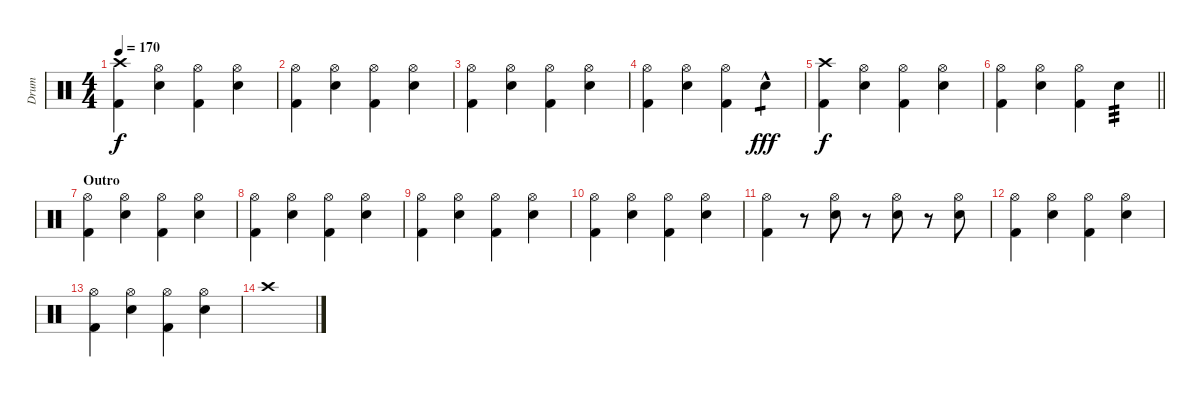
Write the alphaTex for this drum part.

\track ("Drum" "Drum") {instrument percussion}
\staff {score}
\articulation defaults
\ts (4 4)
\tempo 170
\clef neutral
\ks c
("Crash high (hit)" "Kick (hit) 2").4{dy f} ("Hi-Hat (open)" "Electric Snare (hit)").4 ("Hi-Hat (open)" "Kick (hit) 2").4 ("Hi-Hat (open)" "Electric Snare (hit)").4 |
("Hi-Hat (open)" "Kick (hit) 2").4 ("Hi-Hat (open)" "Electric Snare (hit)").4 ("Hi-Hat (open)" "Kick (hit) 2").4 ("Hi-Hat (open)" "Electric Snare (hit)").4 |
("Hi-Hat (open)" "Kick (hit) 2").4 ("Hi-Hat (open)" "Electric Snare (hit)").4 ("Hi-Hat (open)" "Kick (hit) 2").4 ("Hi-Hat (open)" "Electric Snare (hit)").4 |
("Hi-Hat (open)" "Kick (hit) 2").4 ("Hi-Hat (open)" "Electric Snare (hit)").4 ("Hi-Hat (open)" "Kick (hit) 2").4 "Electric Snare (hit)"{hac}.4{tp 1 dy fff} |
("Crash high (hit)" "Kick (hit) 2").4{dy f} ("Hi-Hat (open)" "Electric Snare (hit)").4 ("Hi-Hat (open)" "Kick (hit) 2").4 ("Hi-Hat (open)" "Electric Snare (hit)").4 |
\barLineRight lightlight
("Hi-Hat (open)" "Kick (hit) 2").4 ("Hi-Hat (open)" "Electric Snare (hit)").4 ("Hi-Hat (open)" "Kick (hit) 2").4 "Electric Snare (hit)".4{tp 3} |
\section ("" "Outro")
("Hi-Hat (open)" "Kick (hit) 2").4 ("Hi-Hat (open)" "Electric Snare (hit)").4 ("Hi-Hat (open)" "Kick (hit) 2").4 ("Hi-Hat (open)" "Electric Snare (hit)").4 |
("Hi-Hat (open)" "Kick (hit) 2").4 ("Hi-Hat (open)" "Electric Snare (hit)").4 ("Hi-Hat (open)" "Kick (hit) 2").4 ("Hi-Hat (open)" "Electric Snare (hit)").4 |
("Hi-Hat (open)" "Kick (hit) 2").4 ("Hi-Hat (open)" "Electric Snare (hit)").4 ("Hi-Hat (open)" "Kick (hit) 2").4 ("Hi-Hat (open)" "Electric Snare (hit)").4 |
("Hi-Hat (open)" "Kick (hit) 2").4 ("Hi-Hat (open)" "Electric Snare (hit)").4 ("Hi-Hat (open)" "Kick (hit) 2").4 ("Hi-Hat (open)" "Electric Snare (hit)").4 |
("Hi-Hat (open)" "Kick (hit) 2").4 r.8 ("Hi-Hat (open)" "Electric Snare (hit)").8 r.8 ("Hi-Hat (open)" "Electric Snare (hit)").8 r.8 ("Hi-Hat (open)" "Electric Snare (hit)").8 |
("Hi-Hat (open)" "Kick (hit) 2").4 ("Hi-Hat (open)" "Electric Snare (hit)").4 ("Hi-Hat (open)" "Kick (hit) 2").4 ("Hi-Hat (open)" "Electric Snare (hit)").4 |
("Hi-Hat (open)" "Kick (hit) 2").4 ("Hi-Hat (open)" "Electric Snare (hit)").4 ("Hi-Hat (open)" "Kick (hit) 2").4 ("Hi-Hat (open)" "Electric Snare (hit)").4 |
"Crash high (hit)".1
